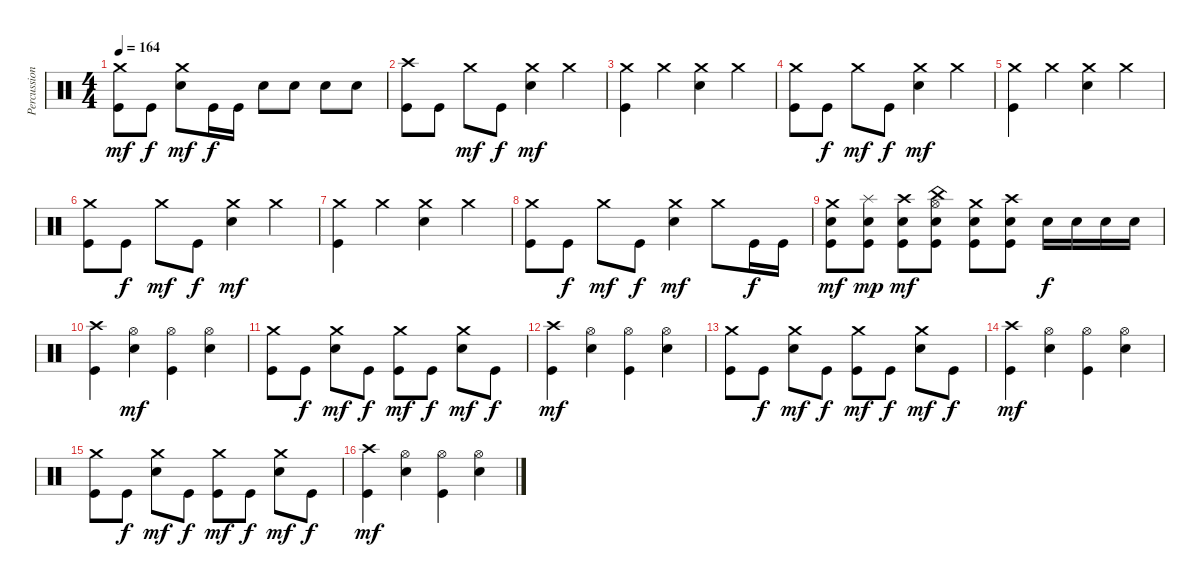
\track ("Percussion" "Percussion") {instrument percussion}
\staff {score}
\articulation defaults
\ts (4 4)
\tempo 164
\clef neutral
\ks c
("Kick (hit)" "Crash medium (hit)").8{dy mf} "Kick (hit)".8{dy f} ("Electric Snare (hit)" "Crash medium (hit)").8{dy mf} "Kick (hit)".16{dy f} "Kick (hit)".16 "Electric Snare (hit)".8 "Electric Snare (hit)".8 "Electric Snare (hit)".8 "Electric Snare (hit)".8 |
("Kick (hit)" "Crash high (hit)").8 "Kick (hit)".8 "Crash medium (hit)".8{dy mf} "Kick (hit)".8{dy f} ("Electric Snare (hit)" "Crash medium (hit)").4{dy mf} "Crash medium (hit)".4 |
("Kick (hit)" "Crash medium (hit)").4 "Crash medium (hit)".4 ("Electric Snare (hit)" "Crash medium (hit)").4 "Crash medium (hit)".4 |
("Kick (hit)" "Crash medium (hit)").8 "Kick (hit)".8{dy f} "Crash medium (hit)".8{dy mf} "Kick (hit)".8{dy f} ("Electric Snare (hit)" "Crash medium (hit)").4{dy mf} "Crash medium (hit)".4 |
("Kick (hit)" "Crash medium (hit)").4 "Crash medium (hit)".4 ("Electric Snare (hit)" "Crash medium (hit)").4 "Crash medium (hit)".4 |
("Kick (hit)" "Crash medium (hit)").8 "Kick (hit)".8{dy f} "Crash medium (hit)".8{dy mf} "Kick (hit)".8{dy f} ("Electric Snare (hit)" "Crash medium (hit)").4{dy mf} "Crash medium (hit)".4 |
("Kick (hit)" "Crash medium (hit)").4 "Crash medium (hit)".4 ("Electric Snare (hit)" "Crash medium (hit)").4 "Crash medium (hit)".4 |
("Kick (hit)" "Crash medium (hit)").8 "Kick (hit)".8{dy f} "Crash medium (hit)".8{dy mf} "Kick (hit)".8{dy f} ("Electric Snare (hit)" "Crash medium (hit)").4{dy mf} "Crash medium (hit)".8 "Kick (hit)".16{dy f} "Kick (hit)".16 |
("Kick (hit)" "Electric Snare (hit)" "Crash medium (hit)").8{dy mf} ("Kick (hit)" "Electric Snare (hit)" "Splash (hit)").8{dy mp} ("Kick (hit)" "Electric Snare (hit)" "Crash high (hit)").8{dy mf} ("Kick (hit)" "Electric Snare (hit)" "Hi-Hat (open)" "China (hit)").8 ("Kick (hit)" "Electric Snare (hit)" "Crash medium (hit)").8 ("Kick (hit)" "Electric Snare (hit)" "Crash high (hit)").8 "Electric Snare (hit)".16{dy f} "Electric Snare (hit)".16 "Electric Snare (hit)".16 "Electric Snare (hit)".16 |
("Kick (hit)" "Crash high (hit)").4 ("Electric Snare (hit)" "Hi-Hat (open)").4{dy mf} ("Kick (hit)" "Hi-Hat (open)").4 ("Electric Snare (hit)" "Hi-Hat (open)").4 |
("Kick (hit)" "Crash medium (hit)").8 "Kick (hit)".8{dy f} ("Electric Snare (hit)" "Crash medium (hit)").8{dy mf} "Kick (hit)".8{dy f} ("Kick (hit)" "Crash medium (hit)").8{dy mf} "Kick (hit)".8{dy f} ("Electric Snare (hit)" "Crash medium (hit)").8{dy mf} "Kick (hit)".8{dy f} |
("Kick (hit)" "Crash high (hit)").4{dy mf} ("Electric Snare (hit)" "Hi-Hat (open)").4 ("Kick (hit)" "Hi-Hat (open)").4 ("Electric Snare (hit)" "Hi-Hat (open)").4 |
("Kick (hit)" "Crash medium (hit)").8 "Kick (hit)".8{dy f} ("Electric Snare (hit)" "Crash medium (hit)").8{dy mf} "Kick (hit)".8{dy f} ("Kick (hit)" "Crash medium (hit)").8{dy mf} "Kick (hit)".8{dy f} ("Electric Snare (hit)" "Crash medium (hit)").8{dy mf} "Kick (hit)".8{dy f} |
("Kick (hit)" "Crash high (hit)").4{dy mf} ("Electric Snare (hit)" "Hi-Hat (open)").4 ("Kick (hit)" "Hi-Hat (open)").4 ("Electric Snare (hit)" "Hi-Hat (open)").4 |
("Kick (hit)" "Crash medium (hit)").8 "Kick (hit)".8{dy f} ("Electric Snare (hit)" "Crash medium (hit)").8{dy mf} "Kick (hit)".8{dy f} ("Kick (hit)" "Crash medium (hit)").8{dy mf} "Kick (hit)".8{dy f} ("Electric Snare (hit)" "Crash medium (hit)").8{dy mf} "Kick (hit)".8{dy f} |
("Kick (hit)" "Crash high (hit)").4{dy mf} ("Electric Snare (hit)" "Hi-Hat (open)").4 ("Kick (hit)" "Hi-Hat (open)").4 ("Electric Snare (hit)" "Hi-Hat (open)").4
